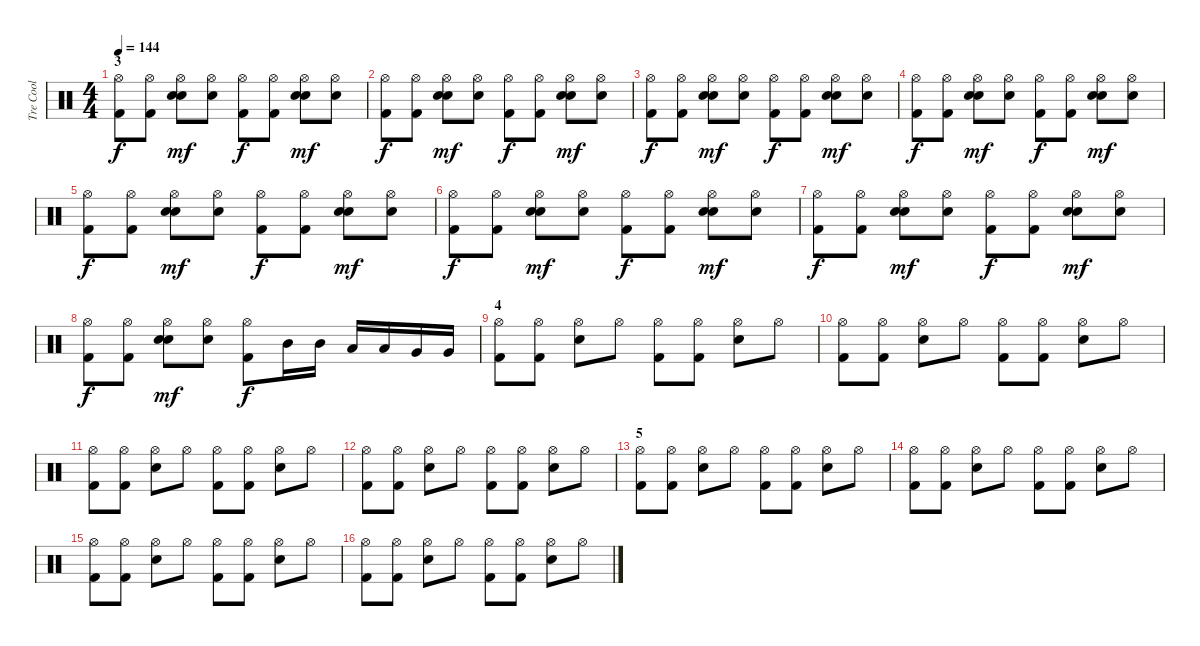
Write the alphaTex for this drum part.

\track ("Tre Cool" "Tre Cool") {instrument percussion}
\staff {score}
\articulation defaults
\ts (4 4)
\section ("" "3")
\tempo 144
\clef neutral
\ks c
("Hi-Hat (open)" "Kick (hit) 2").8{dy f} ("Hi-Hat (open)" "Kick (hit) 2").8 ("Hi-Hat (open)" "Hand Clap (hit)" "Electric Snare (hit)").8{dy mf} ("Hi-Hat (open)" "Hand Clap (hit)").8 ("Hi-Hat (open)" "Kick (hit) 2").8{dy f} ("Hi-Hat (open)" "Kick (hit) 2").8 ("Hi-Hat (open)" "Hand Clap (hit)" "Electric Snare (hit)").8{dy mf} ("Hi-Hat (open)" "Hand Clap (hit)").8 |
("Hi-Hat (open)" "Kick (hit) 2").8{dy f} ("Hi-Hat (open)" "Kick (hit) 2").8 ("Hi-Hat (open)" "Hand Clap (hit)" "Electric Snare (hit)").8{dy mf} ("Hi-Hat (open)" "Hand Clap (hit)").8 ("Hi-Hat (open)" "Kick (hit) 2").8{dy f} ("Hi-Hat (open)" "Kick (hit) 2").8 ("Hi-Hat (open)" "Hand Clap (hit)" "Electric Snare (hit)").8{dy mf} ("Hi-Hat (open)" "Hand Clap (hit)").8 |
("Hi-Hat (open)" "Kick (hit) 2").8{dy f} ("Hi-Hat (open)" "Kick (hit) 2").8 ("Hi-Hat (open)" "Hand Clap (hit)" "Electric Snare (hit)").8{dy mf} ("Hi-Hat (open)" "Hand Clap (hit)").8 ("Hi-Hat (open)" "Kick (hit) 2").8{dy f} ("Hi-Hat (open)" "Kick (hit) 2").8 ("Hi-Hat (open)" "Hand Clap (hit)" "Electric Snare (hit)").8{dy mf} ("Hi-Hat (open)" "Hand Clap (hit)").8 |
("Hi-Hat (open)" "Kick (hit) 2").8{dy f} ("Hi-Hat (open)" "Kick (hit) 2").8 ("Hi-Hat (open)" "Hand Clap (hit)" "Electric Snare (hit)").8{dy mf} ("Hi-Hat (open)" "Hand Clap (hit)").8 ("Hi-Hat (open)" "Kick (hit) 2").8{dy f} ("Hi-Hat (open)" "Kick (hit) 2").8 ("Hi-Hat (open)" "Hand Clap (hit)" "Electric Snare (hit)").8{dy mf} ("Hi-Hat (open)" "Hand Clap (hit)").8 |
("Hi-Hat (open)" "Kick (hit) 2").8{dy f} ("Hi-Hat (open)" "Kick (hit) 2").8 ("Hi-Hat (open)" "Hand Clap (hit)" "Electric Snare (hit)").8{dy mf} ("Hi-Hat (open)" "Hand Clap (hit)").8 ("Hi-Hat (open)" "Kick (hit) 2").8{dy f} ("Hi-Hat (open)" "Kick (hit) 2").8 ("Hi-Hat (open)" "Hand Clap (hit)" "Electric Snare (hit)").8{dy mf} ("Hi-Hat (open)" "Hand Clap (hit)").8 |
("Hi-Hat (open)" "Kick (hit) 2").8{dy f} ("Hi-Hat (open)" "Kick (hit) 2").8 ("Hi-Hat (open)" "Hand Clap (hit)" "Electric Snare (hit)").8{dy mf} ("Hi-Hat (open)" "Hand Clap (hit)").8 ("Hi-Hat (open)" "Kick (hit) 2").8{dy f} ("Hi-Hat (open)" "Kick (hit) 2").8 ("Hi-Hat (open)" "Hand Clap (hit)" "Electric Snare (hit)").8{dy mf} ("Hi-Hat (open)" "Hand Clap (hit)").8 |
("Hi-Hat (open)" "Kick (hit) 2").8{dy f} ("Hi-Hat (open)" "Kick (hit) 2").8 ("Hi-Hat (open)" "Hand Clap (hit)" "Electric Snare (hit)").8{dy mf} ("Hi-Hat (open)" "Hand Clap (hit)").8 ("Hi-Hat (open)" "Kick (hit) 2").8{dy f} ("Hi-Hat (open)" "Kick (hit) 2").8 ("Hi-Hat (open)" "Hand Clap (hit)" "Electric Snare (hit)").8{dy mf} ("Hi-Hat (open)" "Hand Clap (hit)").8 |
("Hi-Hat (open)" "Kick (hit) 2").8{dy f} ("Hi-Hat (open)" "Kick (hit) 2").8 ("Hi-Hat (open)" "Hand Clap (hit)" "Electric Snare (hit)").8{dy mf} ("Hi-Hat (open)" "Hand Clap (hit)").8 ("Hi-Hat (open)" "Kick (hit) 2").8{dy f} "Mid Tom (hit)".16 "Mid Tom (hit)".16 "Low Tom (hit)".16 "Low Tom (hit)".16 "Very Low Tom (hit)".16 "Very Low Tom (hit)".16 |
\section ("" "4")
("Hi-Hat (open)" "Kick (hit) 2").8 ("Hi-Hat (open)" "Kick (hit) 2").8 ("Hi-Hat (open)" "Electric Snare (hit)").8 "Hi-Hat (open)".8 ("Hi-Hat (open)" "Kick (hit) 2").8 ("Hi-Hat (open)" "Kick (hit) 2").8 ("Hi-Hat (open)" "Electric Snare (hit)").8 "Hi-Hat (open)".8 |
("Hi-Hat (open)" "Kick (hit) 2").8 ("Hi-Hat (open)" "Kick (hit) 2").8 ("Hi-Hat (open)" "Electric Snare (hit)").8 "Hi-Hat (open)".8 ("Hi-Hat (open)" "Kick (hit) 2").8 ("Hi-Hat (open)" "Kick (hit) 2").8 ("Hi-Hat (open)" "Electric Snare (hit)").8 "Hi-Hat (open)".8 |
("Hi-Hat (open)" "Kick (hit) 2").8 ("Hi-Hat (open)" "Kick (hit) 2").8 ("Hi-Hat (open)" "Electric Snare (hit)").8 "Hi-Hat (open)".8 ("Hi-Hat (open)" "Kick (hit) 2").8 ("Hi-Hat (open)" "Kick (hit) 2").8 ("Hi-Hat (open)" "Electric Snare (hit)").8 "Hi-Hat (open)".8 |
("Hi-Hat (open)" "Kick (hit) 2").8 ("Hi-Hat (open)" "Kick (hit) 2").8 ("Hi-Hat (open)" "Electric Snare (hit)").8 "Hi-Hat (open)".8 ("Hi-Hat (open)" "Kick (hit) 2").8 ("Hi-Hat (open)" "Kick (hit) 2").8 ("Hi-Hat (open)" "Electric Snare (hit)").8 "Hi-Hat (open)".8 |
\section ("" "5")
("Hi-Hat (open)" "Kick (hit) 2").8 ("Hi-Hat (open)" "Kick (hit) 2").8 ("Hi-Hat (open)" "Electric Snare (hit)").8 "Hi-Hat (open)".8 ("Hi-Hat (open)" "Kick (hit) 2").8 ("Hi-Hat (open)" "Kick (hit) 2").8 ("Hi-Hat (open)" "Electric Snare (hit)").8 "Hi-Hat (open)".8 |
("Hi-Hat (open)" "Kick (hit) 2").8 ("Hi-Hat (open)" "Kick (hit) 2").8 ("Hi-Hat (open)" "Electric Snare (hit)").8 "Hi-Hat (open)".8 ("Hi-Hat (open)" "Kick (hit) 2").8 ("Hi-Hat (open)" "Kick (hit) 2").8 ("Hi-Hat (open)" "Electric Snare (hit)").8 "Hi-Hat (open)".8 |
("Hi-Hat (open)" "Kick (hit) 2").8 ("Hi-Hat (open)" "Kick (hit) 2").8 ("Hi-Hat (open)" "Electric Snare (hit)").8 "Hi-Hat (open)".8 ("Hi-Hat (open)" "Kick (hit) 2").8 ("Hi-Hat (open)" "Kick (hit) 2").8 ("Hi-Hat (open)" "Electric Snare (hit)").8 "Hi-Hat (open)".8 |
("Hi-Hat (open)" "Kick (hit) 2").8 ("Hi-Hat (open)" "Kick (hit) 2").8 ("Hi-Hat (open)" "Electric Snare (hit)").8 "Hi-Hat (open)".8 ("Hi-Hat (open)" "Kick (hit) 2").8 ("Hi-Hat (open)" "Kick (hit) 2").8 ("Hi-Hat (open)" "Electric Snare (hit)").8 "Hi-Hat (open)".8
